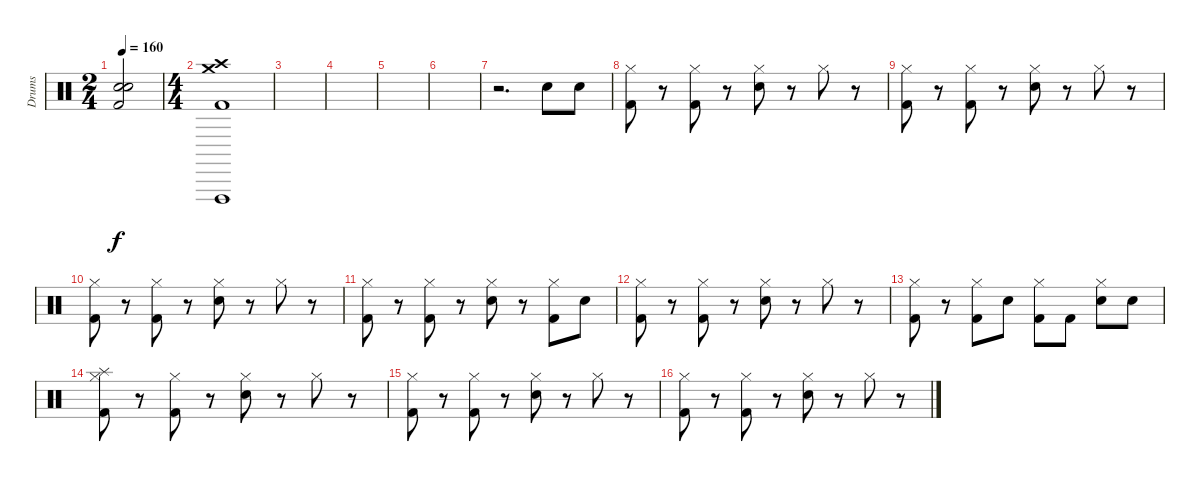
\track ("Drums" "Drums") {instrument percussion}
\staff {score}
\articulation defaults
\ts (2 4)
\tempo 160
\clef neutral
\ks c
("Snare (hit) 2" "Electric Snare (hit)" "Kick (hit) 2").2{dy f} |
\ts (4 4)
("Vibraslap (hit)" "Crash medium (hit)" "Crash high (hit)" "Kick (hit) 2").1 |
|
|
|
|
r.2{d} "Electric Snare (hit)".8 "Electric Snare (hit)".8 |
("Hi-Hat (closed)" "Kick (hit) 2").8 r.8 ("Hi-Hat (closed)" "Kick (hit) 2").8 r.8 ("Hi-Hat (closed)" "Electric Snare (hit)").8 r.8 "Hi-Hat (closed)".8 r.8 |
("Hi-Hat (closed)" "Kick (hit) 2").8 r.8 ("Hi-Hat (closed)" "Kick (hit) 2").8 r.8 ("Hi-Hat (closed)" "Electric Snare (hit)").8 r.8 "Hi-Hat (closed)".8 r.8 |
("Hi-Hat (closed)" "Kick (hit) 2").8 r.8 ("Hi-Hat (closed)" "Kick (hit) 2").8 r.8 ("Hi-Hat (closed)" "Electric Snare (hit)").8 r.8 "Hi-Hat (closed)".8 r.8 |
("Hi-Hat (closed)" "Kick (hit) 2").8 r.8 ("Hi-Hat (closed)" "Kick (hit) 2").8 r.8 ("Hi-Hat (closed)" "Electric Snare (hit)").8 r.8 ("Hi-Hat (closed)" "Kick (hit) 2").8 "Electric Snare (hit)".8 |
("Hi-Hat (closed)" "Kick (hit) 2").8 r.8 ("Hi-Hat (closed)" "Kick (hit) 2").8 r.8 ("Hi-Hat (closed)" "Electric Snare (hit)").8 r.8 "Hi-Hat (closed)".8 r.8 |
("Hi-Hat (closed)" "Kick (hit) 2").8 r.8 ("Hi-Hat (closed)" "Kick (hit) 2").8 "Electric Snare (hit)".8 ("Hi-Hat (closed)" "Kick (hit) 2").8 "Kick (hit) 2".8 ("Hi-Hat (closed)" "Electric Snare (hit)").8 "Electric Snare (hit)".8 |
("Splash (hit)" "Hi-Hat (closed)" "Kick (hit) 2").8 r.8 ("Hi-Hat (closed)" "Kick (hit) 2").8 r.8 ("Hi-Hat (closed)" "Electric Snare (hit)").8 r.8 "Hi-Hat (closed)".8 r.8 |
("Hi-Hat (closed)" "Kick (hit) 2").8 r.8 ("Hi-Hat (closed)" "Kick (hit) 2").8 r.8 ("Hi-Hat (closed)" "Electric Snare (hit)").8 r.8 "Hi-Hat (closed)".8 r.8 |
("Hi-Hat (closed)" "Kick (hit) 2").8 r.8 ("Hi-Hat (closed)" "Kick (hit) 2").8 r.8 ("Hi-Hat (closed)" "Electric Snare (hit)").8 r.8 "Hi-Hat (closed)".8 r.8
